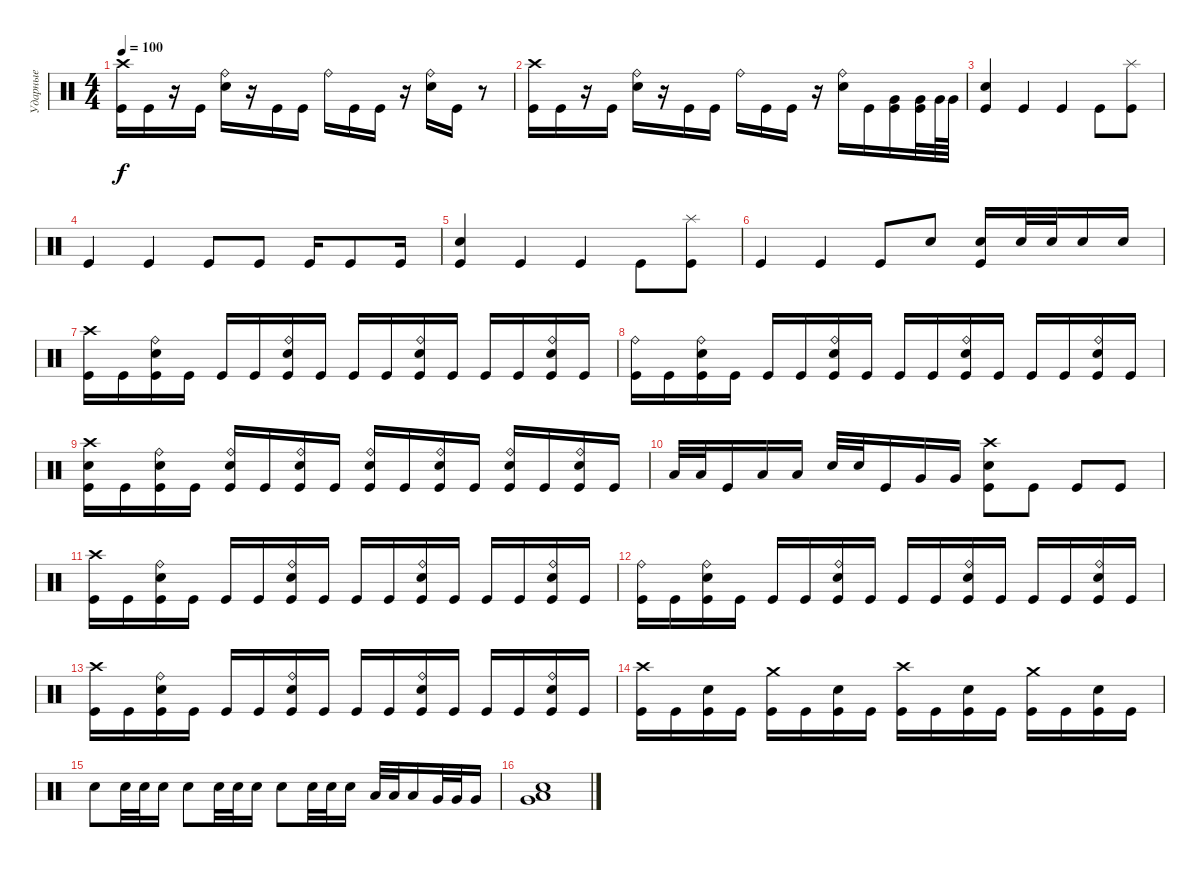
\track ("Ударные" "Ударные") {instrument percussion}
\staff {score}
\articulation defaults
\ts (4 4)
\tempo 100
\clef neutral
\ks c
("Crash high (hit)" "Kick (hit)").16{dy f} "Kick (hit)".16 r.16 "Kick (hit)".16 ("Ride (bell)" "Electric Snare (hit)").16 r.16 "Kick (hit)".16 "Kick (hit)".16 "Ride (bell)".16 "Kick (hit)".16 "Kick (hit)".16 r.16 ("Ride (bell)" "Electric Snare (hit)").16 "Kick (hit)".16 r.8 |
("Crash high (hit)" "Kick (hit)").16 "Kick (hit)".16 r.16 "Kick (hit)".16 ("Ride (bell)" "Electric Snare (hit)").16 r.16 "Kick (hit)".16 "Kick (hit)".16 "Ride (bell)".16 "Kick (hit)".16 "Kick (hit)".16 r.16 ("Ride (bell)" "Electric Snare (hit)").16 "Kick (hit)".16 ("Very Low Tom (hit)" "Kick (hit)").16 ("Very Low Tom (hit)" "Kick (hit)").32 "Very Low Tom (hit)".64 "Very Low Tom (hit)".64 |
("Electric Snare (hit)" "Kick (hit)").4 "Kick (hit)".4 "Kick (hit)".4 "Kick (hit)".8 ("Splash (hit)" "Kick (hit)").8 |
"Kick (hit)".4 "Kick (hit)".4 "Kick (hit)".8 "Kick (hit)".8 "Kick (hit)".16 "Kick (hit)".8 "Kick (hit)".16 |
("Electric Snare (hit)" "Kick (hit)").4 "Kick (hit)".4 "Kick (hit)".4 "Kick (hit)".8 ("Splash (hit)" "Kick (hit)").8 |
"Kick (hit)".4 "Kick (hit)".4 "Kick (hit)".8 "Electric Snare (hit)".8 ("Electric Snare (hit)" "Kick (hit)").16 "Electric Snare (hit)".32 "Electric Snare (hit)".32 "Electric Snare (hit)".16 "Electric Snare (hit)".16 |
("Crash high (hit)" "Kick (hit)").16 "Kick (hit)".16 ("Ride (bell)" "Electric Snare (hit)" "Kick (hit)").16 "Kick (hit)".16 "Kick (hit)".16 "Kick (hit)".16 ("Ride (bell)" "Electric Snare (hit)" "Kick (hit)").16 "Kick (hit)".16 "Kick (hit)".16 "Kick (hit)".16 ("Ride (bell)" "Electric Snare (hit)" "Kick (hit)").16 "Kick (hit)".16 "Kick (hit)".16 "Kick (hit)".16 ("Ride (bell)" "Electric Snare (hit)" "Kick (hit)").16 "Kick (hit)".16 |
("Ride (bell)" "Kick (hit)").16 "Kick (hit)".16 ("Ride (bell)" "Electric Snare (hit)" "Kick (hit)").16 "Kick (hit)".16 "Kick (hit)".16 "Kick (hit)".16 ("Ride (bell)" "Electric Snare (hit)" "Kick (hit)").16 "Kick (hit)".16 "Kick (hit)".16 "Kick (hit)".16 ("Ride (bell)" "Electric Snare (hit)" "Kick (hit)").16 "Kick (hit)".16 "Kick (hit)".16 "Kick (hit)".16 ("Ride (bell)" "Electric Snare (hit)" "Kick (hit)").16 "Kick (hit)".16 |
("Crash high (hit)" "Electric Snare (hit)" "Kick (hit)").16 "Kick (hit)".16 ("Ride (bell)" "Electric Snare (hit)" "Kick (hit)").16 "Kick (hit)".16 ("Ride (bell)" "Electric Snare (hit)" "Kick (hit)").16 "Kick (hit)".16 ("Ride (bell)" "Electric Snare (hit)" "Kick (hit)").16 "Kick (hit)".16 ("Ride (bell)" "Electric Snare (hit)" "Kick (hit)").16 "Kick (hit)".16 ("Ride (bell)" "Electric Snare (hit)" "Kick (hit)").16 "Kick (hit)".16 ("Ride (bell)" "Electric Snare (hit)" "Kick (hit)").16 "Kick (hit)".16 ("Ride (bell)" "Electric Snare (hit)" "Kick (hit)").16 "Kick (hit)".16 |
"Low Tom (hit)".32 "Low Tom (hit)".32 "Kick (hit)".16 "Low Tom (hit)".16 "Low Tom (hit)".16 "Electric Snare (hit)".32 "Electric Snare (hit)".32 "Kick (hit)".16 "Very Low Tom (hit)".16 "Very Low Tom (hit)".16 ("Crash high (hit)" "Electric Snare (hit)" "Kick (hit)").8 "Kick (hit)".8 "Kick (hit)".8 "Kick (hit)".8 |
("Crash high (hit)" "Kick (hit)").16 "Kick (hit)".16 ("Ride (bell)" "Electric Snare (hit)" "Kick (hit)").16 "Kick (hit)".16 "Kick (hit)".16 "Kick (hit)".16 ("Ride (bell)" "Electric Snare (hit)" "Kick (hit)").16 "Kick (hit)".16 "Kick (hit)".16 "Kick (hit)".16 ("Ride (bell)" "Electric Snare (hit)" "Kick (hit)").16 "Kick (hit)".16 "Kick (hit)".16 "Kick (hit)".16 ("Ride (bell)" "Electric Snare (hit)" "Kick (hit)").16 "Kick (hit)".16 |
("Ride (bell)" "Kick (hit)").16 "Kick (hit)".16 ("Ride (bell)" "Electric Snare (hit)" "Kick (hit)").16 "Kick (hit)".16 "Kick (hit)".16 "Kick (hit)".16 ("Ride (bell)" "Electric Snare (hit)" "Kick (hit)").16 "Kick (hit)".16 "Kick (hit)".16 "Kick (hit)".16 ("Ride (bell)" "Electric Snare (hit)" "Kick (hit)").16 "Kick (hit)".16 "Kick (hit)".16 "Kick (hit)".16 ("Ride (bell)" "Electric Snare (hit)" "Kick (hit)").16 "Kick (hit)".16 |
("Crash high (hit)" "Kick (hit)").16 "Kick (hit)".16 ("Ride (bell)" "Electric Snare (hit)" "Kick (hit)").16 "Kick (hit)".16 "Kick (hit)".16 "Kick (hit)".16 ("Ride (bell)" "Electric Snare (hit)" "Kick (hit)").16 "Kick (hit)".16 "Kick (hit)".16 "Kick (hit)".16 ("Ride (bell)" "Electric Snare (hit)" "Kick (hit)").16 "Kick (hit)".16 "Kick (hit)".16 "Kick (hit)".16 ("Ride (bell)" "Electric Snare (hit)" "Kick (hit)").16 "Kick (hit)".16 |
("Crash high (hit)" "Kick (hit)").16 "Kick (hit)".16 ("Electric Snare (hit)" "Kick (hit)").16 "Kick (hit)".16 ("Crash medium (hit)" "Kick (hit)").16 "Kick (hit)".16 ("Electric Snare (hit)" "Kick (hit)").16 "Kick (hit)".16 ("Crash high (hit)" "Kick (hit)").16 "Kick (hit)".16 ("Electric Snare (hit)" "Kick (hit)").16 "Kick (hit)".16 ("Crash medium (hit)" "Kick (hit)").16 "Kick (hit)".16 ("Electric Snare (hit)" "Kick (hit)").16 "Kick (hit)".16 |
"Electric Snare (hit)".8 "Electric Snare (hit)".32 "Electric Snare (hit)".32 "Electric Snare (hit)".16 "Electric Snare (hit)".8 "Electric Snare (hit)".32 "Electric Snare (hit)".32 "Electric Snare (hit)".16 "Electric Snare (hit)".8 "Electric Snare (hit)".32 "Electric Snare (hit)".32 "Electric Snare (hit)".16 "Low Tom (hit)".32 "Low Tom (hit)".32 "Low Tom (hit)".16 "Very Low Tom (hit)".32 "Very Low Tom (hit)".32 "Very Low Tom (hit)".16 |
("Low Tom (hit)" "Very Low Tom (hit)" "Electric Snare (hit)").1
